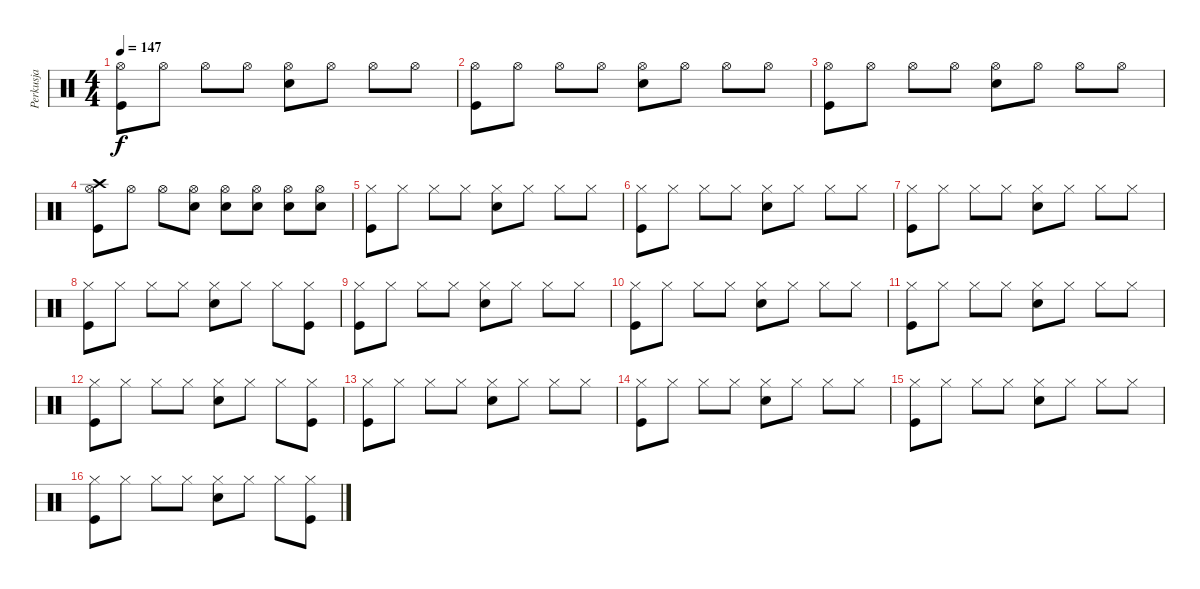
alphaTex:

\track ("Perkusja" "Perkusja") {instrument percussion}
\staff {score}
\articulation defaults
\ts (4 4)
\tempo 147
\clef neutral
\ks c
("Hi-Hat (open)" "Kick (hit)").8{dy f} "Hi-Hat (open)".8 "Hi-Hat (open)".8 "Hi-Hat (open)".8 ("Hi-Hat (open)" "Snare (hit) 2").8 "Hi-Hat (open)".8 "Hi-Hat (open)".8 "Hi-Hat (open)".8 |
("Hi-Hat (open)" "Kick (hit)").8 "Hi-Hat (open)".8 "Hi-Hat (open)".8 "Hi-Hat (open)".8 ("Hi-Hat (open)" "Snare (hit) 2").8 "Hi-Hat (open)".8 "Hi-Hat (open)".8 "Hi-Hat (open)".8 |
("Hi-Hat (open)" "Kick (hit)").8 "Hi-Hat (open)".8 "Hi-Hat (open)".8 "Hi-Hat (open)".8 ("Hi-Hat (open)" "Snare (hit) 2").8 "Hi-Hat (open)".8 "Hi-Hat (open)".8 "Hi-Hat (open)".8 |
("Crash high (hit)" "Hi-Hat (open)" "Kick (hit)").8 "Hi-Hat (open)".8 "Hi-Hat (open)".8 ("Hi-Hat (open)" "Snare (hit) 2").8 ("Hi-Hat (open)" "Snare (hit) 2").8 ("Hi-Hat (open)" "Snare (hit) 2").8 ("Hi-Hat (open)" "Snare (hit) 2").8 ("Hi-Hat (open)" "Snare (hit) 2").8 |
("Hi-Hat (closed)" "Kick (hit)").8 "Hi-Hat (closed)".8 "Hi-Hat (closed)".8 "Hi-Hat (closed)".8 ("Hi-Hat (closed)" "Snare (hit) 2").8 "Hi-Hat (closed)".8 "Hi-Hat (closed)".8 "Hi-Hat (closed)".8 |
("Hi-Hat (closed)" "Kick (hit)").8 "Hi-Hat (closed)".8 "Hi-Hat (closed)".8 "Hi-Hat (closed)".8 ("Hi-Hat (closed)" "Snare (hit) 2").8 "Hi-Hat (closed)".8 "Hi-Hat (closed)".8 "Hi-Hat (closed)".8 |
("Hi-Hat (closed)" "Kick (hit)").8 "Hi-Hat (closed)".8 "Hi-Hat (closed)".8 "Hi-Hat (closed)".8 ("Hi-Hat (closed)" "Snare (hit) 2").8 "Hi-Hat (closed)".8 "Hi-Hat (closed)".8 "Hi-Hat (closed)".8 |
("Hi-Hat (closed)" "Kick (hit)").8 "Hi-Hat (closed)".8 "Hi-Hat (closed)".8 "Hi-Hat (closed)".8 ("Hi-Hat (closed)" "Snare (hit) 2").8 "Hi-Hat (closed)".8 "Hi-Hat (closed)".8 ("Hi-Hat (closed)" "Kick (hit)").8 |
("Hi-Hat (closed)" "Kick (hit)").8 "Hi-Hat (closed)".8 "Hi-Hat (closed)".8 "Hi-Hat (closed)".8 ("Hi-Hat (closed)" "Snare (hit) 2").8 "Hi-Hat (closed)".8 "Hi-Hat (closed)".8 "Hi-Hat (closed)".8 |
("Hi-Hat (closed)" "Kick (hit)").8 "Hi-Hat (closed)".8 "Hi-Hat (closed)".8 "Hi-Hat (closed)".8 ("Hi-Hat (closed)" "Snare (hit) 2").8 "Hi-Hat (closed)".8 "Hi-Hat (closed)".8 "Hi-Hat (closed)".8 |
("Hi-Hat (closed)" "Kick (hit)").8 "Hi-Hat (closed)".8 "Hi-Hat (closed)".8 "Hi-Hat (closed)".8 ("Hi-Hat (closed)" "Snare (hit) 2").8 "Hi-Hat (closed)".8 "Hi-Hat (closed)".8 "Hi-Hat (closed)".8 |
("Hi-Hat (closed)" "Kick (hit)").8 "Hi-Hat (closed)".8 "Hi-Hat (closed)".8 "Hi-Hat (closed)".8 ("Hi-Hat (closed)" "Snare (hit) 2").8 "Hi-Hat (closed)".8 "Hi-Hat (closed)".8 ("Hi-Hat (closed)" "Kick (hit)").8 |
("Hi-Hat (closed)" "Kick (hit)").8 "Hi-Hat (closed)".8 "Hi-Hat (closed)".8 "Hi-Hat (closed)".8 ("Hi-Hat (closed)" "Snare (hit) 2").8 "Hi-Hat (closed)".8 "Hi-Hat (closed)".8 "Hi-Hat (closed)".8 |
("Hi-Hat (closed)" "Kick (hit)").8 "Hi-Hat (closed)".8 "Hi-Hat (closed)".8 "Hi-Hat (closed)".8 ("Hi-Hat (closed)" "Snare (hit) 2").8 "Hi-Hat (closed)".8 "Hi-Hat (closed)".8 "Hi-Hat (closed)".8 |
("Hi-Hat (closed)" "Kick (hit)").8 "Hi-Hat (closed)".8 "Hi-Hat (closed)".8 "Hi-Hat (closed)".8 ("Hi-Hat (closed)" "Snare (hit) 2").8 "Hi-Hat (closed)".8 "Hi-Hat (closed)".8 "Hi-Hat (closed)".8 |
("Hi-Hat (closed)" "Kick (hit)").8 "Hi-Hat (closed)".8 "Hi-Hat (closed)".8 "Hi-Hat (closed)".8 ("Hi-Hat (closed)" "Snare (hit) 2").8 "Hi-Hat (closed)".8 "Hi-Hat (closed)".8 ("Hi-Hat (closed)" "Kick (hit)").8
